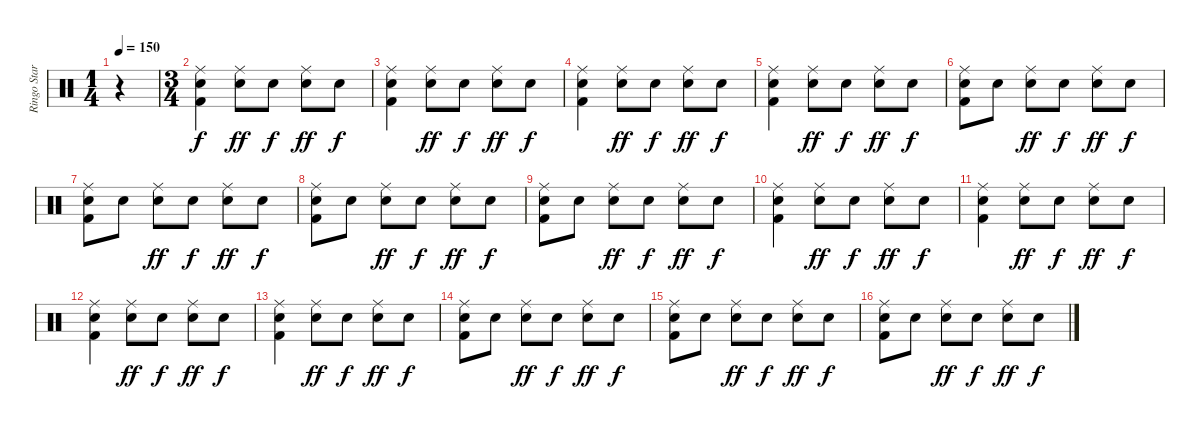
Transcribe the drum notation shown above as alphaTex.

\track ("Ringo Starr (Batterie)" "Ringo Star") {instrument percussion}
\staff {score}
\articulation defaults
\ts (1 4)
\tempo 150
\clef neutral
\ks c
r.4{dy f volume 2} |
\ts (3 4)
("Ride (middle)" "Snare (hit) 2" "Kick (hit) 2").4 ("Ride (middle)" "Snare (hit) 2").8{dy ff} "Snare (hit) 2".8{dy f} ("Ride (middle)" "Snare (hit) 2").8{dy ff} "Snare (hit) 2".8{dy f} |
("Ride (middle)" "Snare (hit) 2" "Kick (hit) 2").4 ("Ride (middle)" "Snare (hit) 2").8{dy ff} "Snare (hit) 2".8{dy f} ("Ride (middle)" "Snare (hit) 2").8{dy ff} "Snare (hit) 2".8{dy f} |
("Ride (middle)" "Snare (hit) 2" "Kick (hit) 2").4 ("Ride (middle)" "Snare (hit) 2").8{dy ff} "Snare (hit) 2".8{dy f} ("Ride (middle)" "Snare (hit) 2").8{dy ff volume 11} "Snare (hit) 2".8{dy f} |
("Ride (middle)" "Snare (hit) 2" "Kick (hit) 2").4 ("Ride (middle)" "Snare (hit) 2").8{dy ff} "Snare (hit) 2".8{dy f} ("Ride (middle)" "Snare (hit) 2").8{dy ff} "Snare (hit) 2".8{dy f} |
("Ride (middle)" "Snare (hit) 2" "Kick (hit) 2").8 "Snare (hit) 2".8 ("Ride (middle)" "Snare (hit) 2").8{dy ff} "Snare (hit) 2".8{dy f} ("Ride (middle)" "Snare (hit) 2").8{dy ff} "Snare (hit) 2".8{dy f} |
("Ride (middle)" "Snare (hit) 2" "Kick (hit) 2").8 "Snare (hit) 2".8 ("Ride (middle)" "Snare (hit) 2").8{dy ff} "Snare (hit) 2".8{dy f} ("Ride (middle)" "Snare (hit) 2").8{dy ff} "Snare (hit) 2".8{dy f} |
("Ride (middle)" "Snare (hit) 2" "Kick (hit) 2").8 "Snare (hit) 2".8 ("Ride (middle)" "Snare (hit) 2").8{dy ff} "Snare (hit) 2".8{dy f} ("Ride (middle)" "Snare (hit) 2").8{dy ff} "Snare (hit) 2".8{dy f} |
("Ride (middle)" "Snare (hit) 2" "Kick (hit) 2").8 "Snare (hit) 2".8 ("Ride (middle)" "Snare (hit) 2").8{dy ff} "Snare (hit) 2".8{dy f} ("Ride (middle)" "Snare (hit) 2").8{dy ff} "Snare (hit) 2".8{dy f} |
("Ride (middle)" "Snare (hit) 2" "Kick (hit) 2").4 ("Ride (middle)" "Snare (hit) 2").8{dy ff} "Snare (hit) 2".8{dy f} ("Ride (middle)" "Snare (hit) 2").8{dy ff} "Snare (hit) 2".8{dy f} |
("Ride (middle)" "Snare (hit) 2" "Kick (hit) 2").4 ("Ride (middle)" "Snare (hit) 2").8{dy ff} "Snare (hit) 2".8{dy f} ("Ride (middle)" "Snare (hit) 2").8{dy ff} "Snare (hit) 2".8{dy f} |
("Ride (middle)" "Snare (hit) 2" "Kick (hit) 2").4 ("Ride (middle)" "Snare (hit) 2").8{dy ff} "Snare (hit) 2".8{dy f} ("Ride (middle)" "Snare (hit) 2").8{dy ff} "Snare (hit) 2".8{dy f} |
("Ride (middle)" "Snare (hit) 2" "Kick (hit) 2").4 ("Ride (middle)" "Snare (hit) 2").8{dy ff} "Snare (hit) 2".8{dy f} ("Ride (middle)" "Snare (hit) 2").8{dy ff} "Snare (hit) 2".8{dy f} |
("Ride (middle)" "Snare (hit) 2" "Kick (hit) 2").8 "Snare (hit) 2".8 ("Ride (middle)" "Snare (hit) 2").8{dy ff} "Snare (hit) 2".8{dy f} ("Ride (middle)" "Snare (hit) 2").8{dy ff} "Snare (hit) 2".8{dy f} |
("Ride (middle)" "Snare (hit) 2" "Kick (hit) 2").8 "Snare (hit) 2".8 ("Ride (middle)" "Snare (hit) 2").8{dy ff} "Snare (hit) 2".8{dy f} ("Ride (middle)" "Snare (hit) 2").8{dy ff} "Snare (hit) 2".8{dy f} |
("Ride (middle)" "Snare (hit) 2" "Kick (hit) 2").8 "Snare (hit) 2".8 ("Ride (middle)" "Snare (hit) 2").8{dy ff} "Snare (hit) 2".8{dy f} ("Ride (middle)" "Snare (hit) 2").8{dy ff} "Snare (hit) 2".8{dy f}
